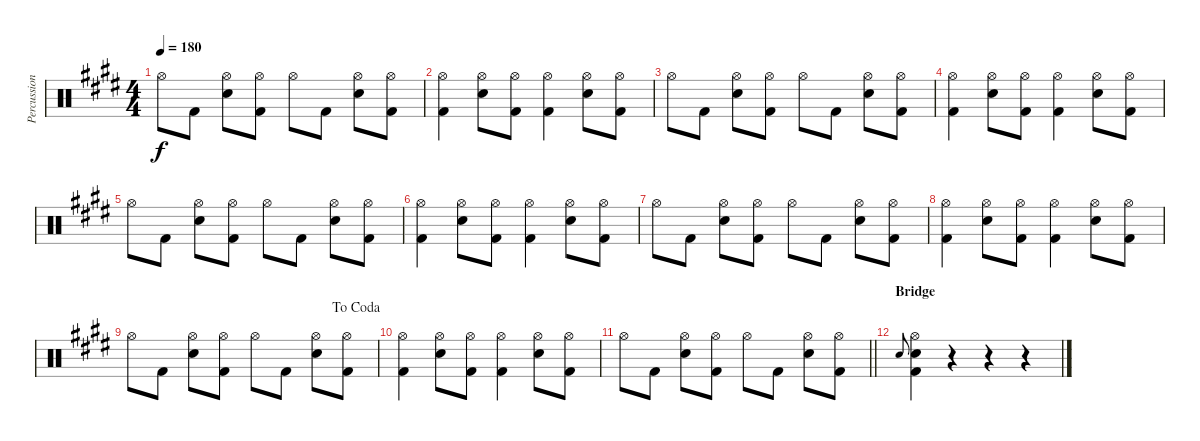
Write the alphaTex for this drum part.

\track ("Percussion" "Percussion") {instrument percussion}
\staff {score}
\articulation defaults
\ts (4 4)
\tempo 180
\clef neutral
\ks c#minor "Hi-Hat (open)".8{dy f} "Kick (hit) 2".8
("Hi-Hat (open)" "Snare (hit) 2").8 ("Hi-Hat (open)" "Kick (hit) 2").8 "Hi-Hat (open)".8 "Kick (hit) 2".8 ("Hi-Hat (open)" "Snare (hit) 2").8 ("Hi-Hat (open)" "Kick (hit) 2").8 |
("Hi-Hat (open)" "Kick (hit) 2").4 ("Hi-Hat (open)" "Snare (hit) 2").8 ("Hi-Hat (open)" "Kick (hit) 2").8 ("Hi-Hat (open)" "Kick (hit) 2").4 ("Hi-Hat (open)" "Snare (hit) 2").8 ("Hi-Hat (open)" "Kick (hit) 2").8 |
"Hi-Hat (open)".8 "Kick (hit) 2".8 ("Hi-Hat (open)" "Snare (hit) 2").8 ("Hi-Hat (open)" "Kick (hit) 2").8 "Hi-Hat (open)".8 "Kick (hit) 2".8 ("Hi-Hat (open)" "Snare (hit) 2").8 ("Hi-Hat (open)" "Kick (hit) 2").8 |
("Hi-Hat (open)" "Kick (hit) 2").4 ("Hi-Hat (open)" "Snare (hit) 2").8 ("Hi-Hat (open)" "Kick (hit) 2").8 ("Hi-Hat (open)" "Kick (hit) 2").4 ("Hi-Hat (open)" "Snare (hit) 2").8 ("Hi-Hat (open)" "Kick (hit) 2").8 |
"Hi-Hat (open)".8 "Kick (hit) 2".8 ("Hi-Hat (open)" "Snare (hit) 2").8 ("Hi-Hat (open)" "Kick (hit) 2").8 "Hi-Hat (open)".8 "Kick (hit) 2".8 ("Hi-Hat (open)" "Snare (hit) 2").8 ("Hi-Hat (open)" "Kick (hit) 2").8 |
("Hi-Hat (open)" "Kick (hit) 2").4 ("Hi-Hat (open)" "Snare (hit) 2").8 ("Hi-Hat (open)" "Kick (hit) 2").8 ("Hi-Hat (open)" "Kick (hit) 2").4 ("Hi-Hat (open)" "Snare (hit) 2").8 ("Hi-Hat (open)" "Kick (hit) 2").8 |
"Hi-Hat (open)".8 "Kick (hit) 2".8 ("Hi-Hat (open)" "Snare (hit) 2").8 ("Hi-Hat (open)" "Kick (hit) 2").8 "Hi-Hat (open)".8 "Kick (hit) 2".8 ("Hi-Hat (open)" "Snare (hit) 2").8 ("Hi-Hat (open)" "Kick (hit) 2").8 |
("Hi-Hat (open)" "Kick (hit) 2").4 ("Hi-Hat (open)" "Snare (hit) 2").8 ("Hi-Hat (open)" "Kick (hit) 2").8 ("Hi-Hat (open)" "Kick (hit) 2").4 ("Hi-Hat (open)" "Snare (hit) 2").8 ("Hi-Hat (open)" "Kick (hit) 2").8 |
\jump dacoda "Hi-Hat (open)".8 "Kick (hit) 2".8
("Hi-Hat (open)" "Snare (hit) 2").8 ("Hi-Hat (open)" "Kick (hit) 2").8 "Hi-Hat (open)".8 "Kick (hit) 2".8 ("Hi-Hat (open)" "Snare (hit) 2").8 ("Hi-Hat (open)" "Kick (hit) 2").8 |
("Hi-Hat (open)" "Kick (hit) 2").4 ("Hi-Hat (open)" "Snare (hit) 2").8 ("Hi-Hat (open)" "Kick (hit) 2").8 ("Hi-Hat (open)" "Kick (hit) 2").4 ("Hi-Hat (open)" "Snare (hit) 2").8 ("Hi-Hat (open)" "Kick (hit) 2").8 |
\barLineRight lightlight "Hi-Hat (open)".8 "Kick (hit) 2".8
("Hi-Hat (open)" "Snare (hit) 2").8 ("Hi-Hat (open)" "Kick (hit) 2").8 "Hi-Hat (open)".8 "Kick (hit) 2".8 ("Hi-Hat (open)" "Snare (hit) 2").8 ("Hi-Hat (open)" "Kick (hit) 2").8 |
\section ("" "Bridge")
"Snare (hit) 2".8{gr onbeat} ("Snare (hit) 2" "Kick (hit) 2" "Hi-Hat (open)").4 r.4 r.4 r.4
